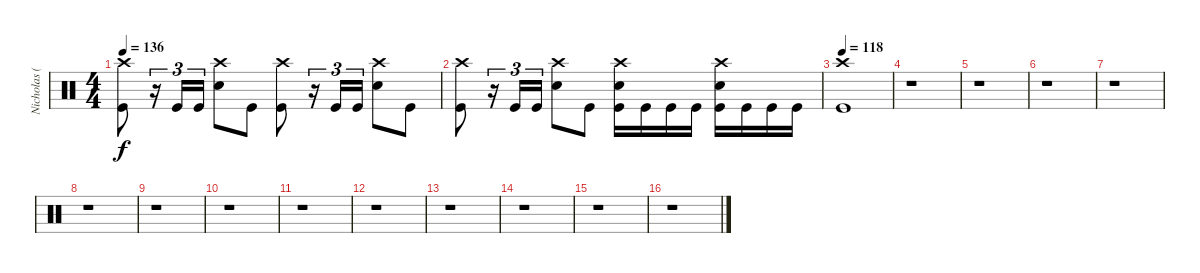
\track ("Nicholas (Drums)" "Nicholas (") {instrument percussion}
\staff {score}
\articulation defaults
\ts (4 4)
\tempo 136
\clef neutral
\ks c
("Crash high (hit)" "Kick (hit)").8{dy f} r.16{tu (3 2)} "Kick (hit)".16{tu (3 2)} "Kick (hit)".16{tu (3 2)} ("Crash high (hit)" "Electric Snare (hit)").8 "Kick (hit)".8 ("Crash high (hit)" "Kick (hit)").8 r.16{tu (3 2)} "Kick (hit)".16{tu (3 2)} "Kick (hit)".16{tu (3 2)} ("Crash high (hit)" "Electric Snare (hit)").8 "Kick (hit)".8 |
("Crash high (hit)" "Kick (hit)").8 r.16{tu (3 2)} "Kick (hit)".16{tu (3 2)} "Kick (hit)".16{tu (3 2)} ("Crash high (hit)" "Electric Snare (hit)").8 "Kick (hit)".8 ("Crash high (hit)" "Electric Snare (hit)" "Kick (hit)").16 "Kick (hit)".16 "Kick (hit)".16 "Kick (hit)".16 ("Crash high (hit)" "Electric Snare (hit)" "Kick (hit)").16 "Kick (hit)".16 "Kick (hit)".16 "Kick (hit)".16 |
\tempo 118
("Crash high (hit)" "Kick (hit)").1 |
r.1 |
r.1 |
r.1 |
r.1 |
r.1 |
r.1 |
r.1 |
r.1 |
r.1 |
r.1 |
r.1 |
r.1 |
r.1
